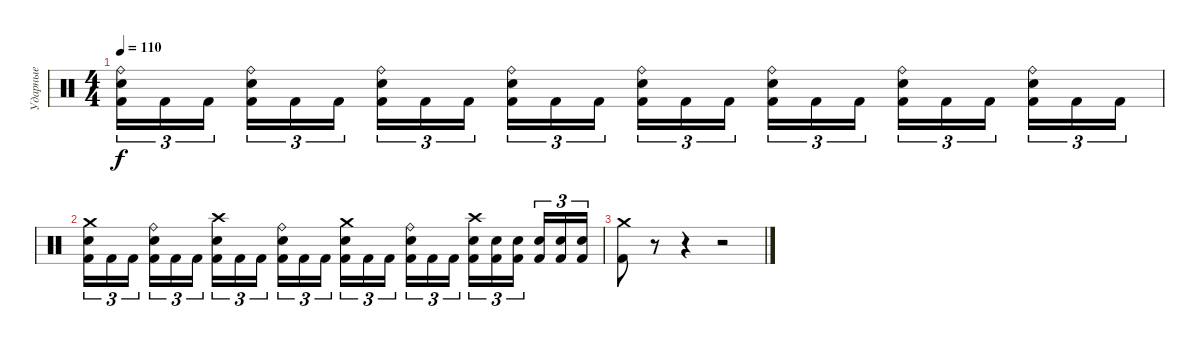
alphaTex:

\track ("Ударные" "Ударные") {instrument percussion}
\staff {score}
\articulation defaults
\ts (4 4)
\tempo 110
\clef neutral
\ks c
("Ride (bell)" "Electric Snare (hit)" "Kick (hit) 2").16{tu (3 2) dy f} "Kick (hit) 2".16{tu (3 2)} "Kick (hit) 2".16{tu (3 2) beam splitsecondary} ("Ride (bell)" "Electric Snare (hit)" "Kick (hit) 2").16{tu (3 2)} "Kick (hit) 2".16{tu (3 2)} "Kick (hit) 2".16{tu (3 2)} ("Ride (bell)" "Electric Snare (hit)" "Kick (hit) 2").16{tu (3 2)} "Kick (hit) 2".16{tu (3 2)} "Kick (hit) 2".16{tu (3 2) beam splitsecondary} ("Ride (bell)" "Electric Snare (hit)" "Kick (hit) 2").16{tu (3 2)} "Kick (hit) 2".16{tu (3 2)} "Kick (hit) 2".16{tu (3 2)} ("Ride (bell)" "Electric Snare (hit)" "Kick (hit) 2").16{tu (3 2)} "Kick (hit) 2".16{tu (3 2)} "Kick (hit) 2".16{tu (3 2) beam splitsecondary} ("Ride (bell)" "Electric Snare (hit)" "Kick (hit) 2").16{tu (3 2)} "Kick (hit) 2".16{tu (3 2)} "Kick (hit) 2".16{tu (3 2)} ("Ride (bell)" "Electric Snare (hit)" "Kick (hit) 2").16{tu (3 2)} "Kick (hit) 2".16{tu (3 2)} "Kick (hit) 2".16{tu (3 2) beam splitsecondary} ("Ride (bell)" "Electric Snare (hit)" "Kick (hit) 2").16{tu (3 2)} "Kick (hit) 2".16{tu (3 2)} "Kick (hit) 2".16{tu (3 2)} |
("Crash medium (hit)" "Electric Snare (hit)" "Kick (hit) 2").16{tu (3 2)} "Kick (hit) 2".16{tu (3 2)} "Kick (hit) 2".16{tu (3 2) beam splitsecondary} ("Ride (bell)" "Electric Snare (hit)" "Kick (hit) 2").16{tu (3 2)} "Kick (hit) 2".16{tu (3 2)} "Kick (hit) 2".16{tu (3 2)} ("Crash high (hit)" "Electric Snare (hit)" "Kick (hit) 2").16{tu (3 2)} "Kick (hit) 2".16{tu (3 2)} "Kick (hit) 2".16{tu (3 2) beam splitsecondary} ("Ride (bell)" "Electric Snare (hit)" "Kick (hit) 2").16{tu (3 2)} "Kick (hit) 2".16{tu (3 2)} "Kick (hit) 2".16{tu (3 2)} ("Crash medium (hit)" "Electric Snare (hit)" "Kick (hit) 2").16{tu (3 2)} "Kick (hit) 2".16{tu (3 2)} "Kick (hit) 2".16{tu (3 2) beam splitsecondary} ("Ride (bell)" "Electric Snare (hit)" "Kick (hit) 2").16{tu (3 2)} "Kick (hit) 2".16{tu (3 2)} "Kick (hit) 2".16{tu (3 2)} ("Crash high (hit)" "Electric Snare (hit)" "Kick (hit) 2").16{tu (3 2)} ("Electric Snare (hit)" "Kick (hit) 2").16{tu (3 2)} ("Electric Snare (hit)" "Kick (hit) 2").16{tu (3 2) beam splitsecondary} ("Electric Snare (hit)" "Kick (hit) 2").16{tu (3 2)} ("Electric Snare (hit)" "Kick (hit) 2").16{tu (3 2)} ("Electric Snare (hit)" "Kick (hit) 2").16{tu (3 2)} |
("Crash medium (hit)" "Kick (hit) 2").8 r.8 r.4 r.2
